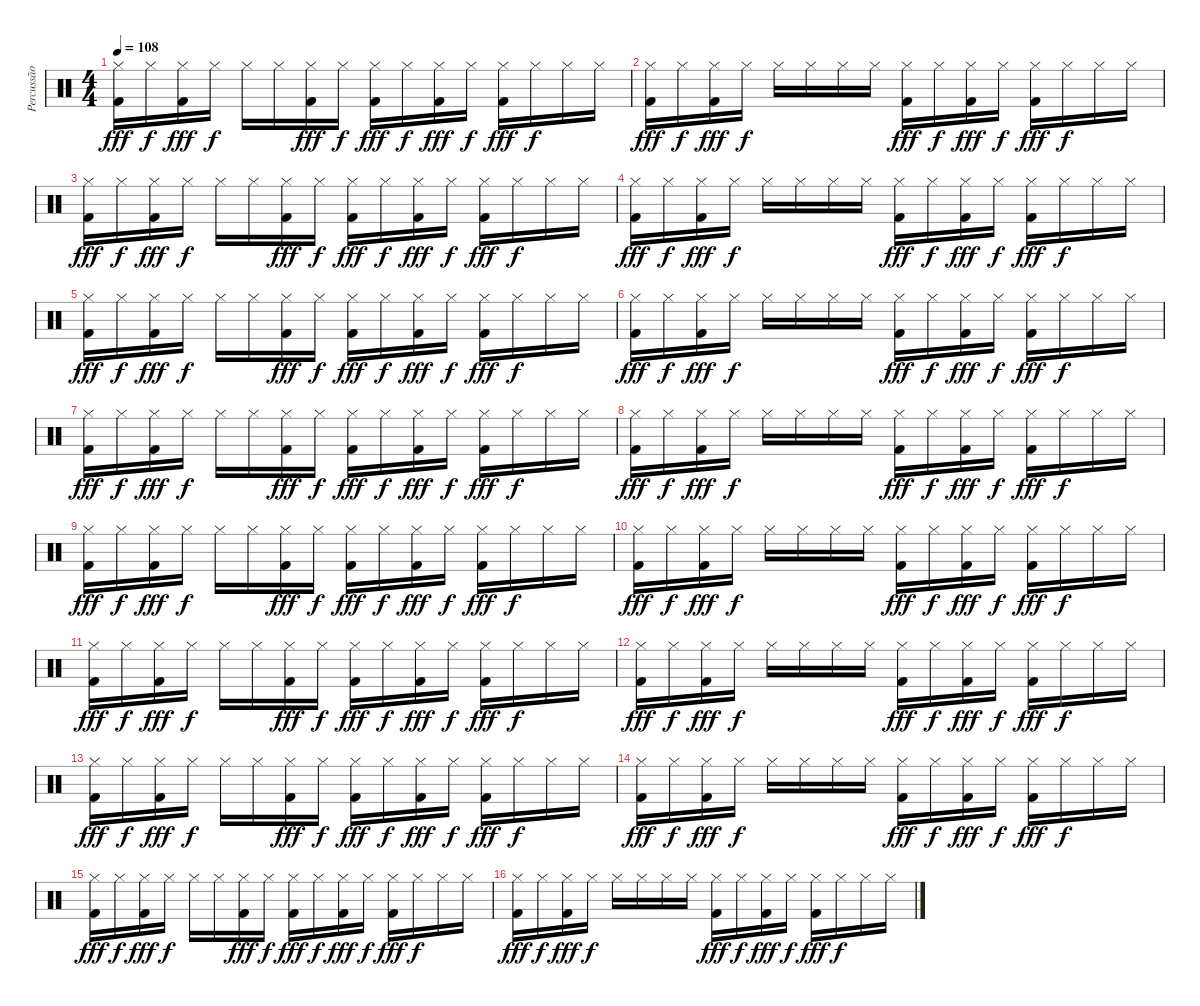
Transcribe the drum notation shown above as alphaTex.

\track ("Percussão" "Percussão") {instrument percussion}
\staff {score}
\articulation defaults
\ts (4 4)
\tempo 108
\clef neutral
\ks c
("Hi-Hat (closed)" "Kick (hit) 2").16{dy fff} "Hi-Hat (closed)".16{dy f} ("Hi-Hat (closed)" "Kick (hit) 2").16{dy fff} "Hi-Hat (closed)".16{dy f} "Hi-Hat (closed)".16 "Hi-Hat (closed)".16 ("Hi-Hat (closed)" "Kick (hit) 2").16{dy fff} "Hi-Hat (closed)".16{dy f} ("Hi-Hat (closed)" "Kick (hit) 2").16{dy fff} "Hi-Hat (closed)".16{dy f} ("Hi-Hat (closed)" "Kick (hit) 2").16{dy fff} "Hi-Hat (closed)".16{dy f} ("Hi-Hat (closed)" "Kick (hit) 2").16{dy fff} "Hi-Hat (closed)".16{dy f} "Hi-Hat (closed)".16 "Hi-Hat (closed)".16 |
("Hi-Hat (closed)" "Kick (hit) 2").16{dy fff} "Hi-Hat (closed)".16{dy f} ("Hi-Hat (closed)" "Kick (hit) 2").16{dy fff} "Hi-Hat (closed)".16{dy f} "Hi-Hat (closed)".16 "Hi-Hat (closed)".16 "Hi-Hat (closed)".16 "Hi-Hat (closed)".16 ("Hi-Hat (closed)" "Kick (hit) 2").16{dy fff} "Hi-Hat (closed)".16{dy f} ("Hi-Hat (closed)" "Kick (hit) 2").16{dy fff} "Hi-Hat (closed)".16{dy f} ("Hi-Hat (closed)" "Kick (hit) 2").16{dy fff} "Hi-Hat (closed)".16{dy f} "Hi-Hat (closed)".16 "Hi-Hat (closed)".16 |
("Hi-Hat (closed)" "Kick (hit) 2").16{dy fff} "Hi-Hat (closed)".16{dy f} ("Hi-Hat (closed)" "Kick (hit) 2").16{dy fff} "Hi-Hat (closed)".16{dy f} "Hi-Hat (closed)".16 "Hi-Hat (closed)".16 ("Hi-Hat (closed)" "Kick (hit) 2").16{dy fff} "Hi-Hat (closed)".16{dy f} ("Hi-Hat (closed)" "Kick (hit) 2").16{dy fff} "Hi-Hat (closed)".16{dy f} ("Hi-Hat (closed)" "Kick (hit) 2").16{dy fff} "Hi-Hat (closed)".16{dy f} ("Hi-Hat (closed)" "Kick (hit) 2").16{dy fff} "Hi-Hat (closed)".16{dy f} "Hi-Hat (closed)".16 "Hi-Hat (closed)".16 |
("Hi-Hat (closed)" "Kick (hit) 2").16{dy fff} "Hi-Hat (closed)".16{dy f} ("Hi-Hat (closed)" "Kick (hit) 2").16{dy fff} "Hi-Hat (closed)".16{dy f} "Hi-Hat (closed)".16 "Hi-Hat (closed)".16 "Hi-Hat (closed)".16 "Hi-Hat (closed)".16 ("Hi-Hat (closed)" "Kick (hit) 2").16{dy fff} "Hi-Hat (closed)".16{dy f} ("Hi-Hat (closed)" "Kick (hit) 2").16{dy fff} "Hi-Hat (closed)".16{dy f} ("Hi-Hat (closed)" "Kick (hit) 2").16{dy fff} "Hi-Hat (closed)".16{dy f} "Hi-Hat (closed)".16 "Hi-Hat (closed)".16 |
("Hi-Hat (closed)" "Kick (hit) 2").16{dy fff} "Hi-Hat (closed)".16{dy f} ("Hi-Hat (closed)" "Kick (hit) 2").16{dy fff} "Hi-Hat (closed)".16{dy f} "Hi-Hat (closed)".16 "Hi-Hat (closed)".16 ("Hi-Hat (closed)" "Kick (hit) 2").16{dy fff} "Hi-Hat (closed)".16{dy f} ("Hi-Hat (closed)" "Kick (hit) 2").16{dy fff} "Hi-Hat (closed)".16{dy f} ("Hi-Hat (closed)" "Kick (hit) 2").16{dy fff} "Hi-Hat (closed)".16{dy f} ("Hi-Hat (closed)" "Kick (hit) 2").16{dy fff} "Hi-Hat (closed)".16{dy f} "Hi-Hat (closed)".16 "Hi-Hat (closed)".16 |
("Hi-Hat (closed)" "Kick (hit) 2").16{dy fff} "Hi-Hat (closed)".16{dy f} ("Hi-Hat (closed)" "Kick (hit) 2").16{dy fff} "Hi-Hat (closed)".16{dy f} "Hi-Hat (closed)".16 "Hi-Hat (closed)".16 "Hi-Hat (closed)".16 "Hi-Hat (closed)".16 ("Hi-Hat (closed)" "Kick (hit) 2").16{dy fff} "Hi-Hat (closed)".16{dy f} ("Hi-Hat (closed)" "Kick (hit) 2").16{dy fff} "Hi-Hat (closed)".16{dy f} ("Hi-Hat (closed)" "Kick (hit) 2").16{dy fff} "Hi-Hat (closed)".16{dy f} "Hi-Hat (closed)".16 "Hi-Hat (closed)".16 |
("Hi-Hat (closed)" "Kick (hit) 2").16{dy fff} "Hi-Hat (closed)".16{dy f} ("Hi-Hat (closed)" "Kick (hit) 2").16{dy fff} "Hi-Hat (closed)".16{dy f} "Hi-Hat (closed)".16 "Hi-Hat (closed)".16 ("Hi-Hat (closed)" "Kick (hit) 2").16{dy fff} "Hi-Hat (closed)".16{dy f} ("Hi-Hat (closed)" "Kick (hit) 2").16{dy fff} "Hi-Hat (closed)".16{dy f} ("Hi-Hat (closed)" "Kick (hit) 2").16{dy fff} "Hi-Hat (closed)".16{dy f} ("Hi-Hat (closed)" "Kick (hit) 2").16{dy fff} "Hi-Hat (closed)".16{dy f} "Hi-Hat (closed)".16 "Hi-Hat (closed)".16 |
("Hi-Hat (closed)" "Kick (hit) 2").16{dy fff} "Hi-Hat (closed)".16{dy f} ("Hi-Hat (closed)" "Kick (hit) 2").16{dy fff} "Hi-Hat (closed)".16{dy f} "Hi-Hat (closed)".16 "Hi-Hat (closed)".16 "Hi-Hat (closed)".16 "Hi-Hat (closed)".16 ("Hi-Hat (closed)" "Kick (hit) 2").16{dy fff} "Hi-Hat (closed)".16{dy f} ("Hi-Hat (closed)" "Kick (hit) 2").16{dy fff} "Hi-Hat (closed)".16{dy f} ("Hi-Hat (closed)" "Kick (hit) 2").16{dy fff} "Hi-Hat (closed)".16{dy f} "Hi-Hat (closed)".16 "Hi-Hat (closed)".16 |
("Hi-Hat (closed)" "Kick (hit) 2").16{dy fff} "Hi-Hat (closed)".16{dy f} ("Hi-Hat (closed)" "Kick (hit) 2").16{dy fff} "Hi-Hat (closed)".16{dy f} "Hi-Hat (closed)".16 "Hi-Hat (closed)".16 ("Hi-Hat (closed)" "Kick (hit) 2").16{dy fff} "Hi-Hat (closed)".16{dy f} ("Hi-Hat (closed)" "Kick (hit) 2").16{dy fff} "Hi-Hat (closed)".16{dy f} ("Hi-Hat (closed)" "Kick (hit) 2").16{dy fff} "Hi-Hat (closed)".16{dy f} ("Hi-Hat (closed)" "Kick (hit) 2").16{dy fff} "Hi-Hat (closed)".16{dy f} "Hi-Hat (closed)".16 "Hi-Hat (closed)".16 |
("Hi-Hat (closed)" "Kick (hit) 2").16{dy fff} "Hi-Hat (closed)".16{dy f} ("Hi-Hat (closed)" "Kick (hit) 2").16{dy fff} "Hi-Hat (closed)".16{dy f} "Hi-Hat (closed)".16 "Hi-Hat (closed)".16 "Hi-Hat (closed)".16 "Hi-Hat (closed)".16 ("Hi-Hat (closed)" "Kick (hit) 2").16{dy fff} "Hi-Hat (closed)".16{dy f} ("Hi-Hat (closed)" "Kick (hit) 2").16{dy fff} "Hi-Hat (closed)".16{dy f} ("Hi-Hat (closed)" "Kick (hit) 2").16{dy fff} "Hi-Hat (closed)".16{dy f} "Hi-Hat (closed)".16 "Hi-Hat (closed)".16 |
("Hi-Hat (closed)" "Kick (hit) 2").16{dy fff} "Hi-Hat (closed)".16{dy f} ("Hi-Hat (closed)" "Kick (hit) 2").16{dy fff} "Hi-Hat (closed)".16{dy f} "Hi-Hat (closed)".16 "Hi-Hat (closed)".16 ("Hi-Hat (closed)" "Kick (hit) 2").16{dy fff} "Hi-Hat (closed)".16{dy f} ("Hi-Hat (closed)" "Kick (hit) 2").16{dy fff} "Hi-Hat (closed)".16{dy f} ("Hi-Hat (closed)" "Kick (hit) 2").16{dy fff} "Hi-Hat (closed)".16{dy f} ("Hi-Hat (closed)" "Kick (hit) 2").16{dy fff} "Hi-Hat (closed)".16{dy f} "Hi-Hat (closed)".16 "Hi-Hat (closed)".16 |
("Hi-Hat (closed)" "Kick (hit) 2").16{dy fff} "Hi-Hat (closed)".16{dy f} ("Hi-Hat (closed)" "Kick (hit) 2").16{dy fff} "Hi-Hat (closed)".16{dy f} "Hi-Hat (closed)".16 "Hi-Hat (closed)".16 "Hi-Hat (closed)".16 "Hi-Hat (closed)".16 ("Hi-Hat (closed)" "Kick (hit) 2").16{dy fff} "Hi-Hat (closed)".16{dy f} ("Hi-Hat (closed)" "Kick (hit) 2").16{dy fff} "Hi-Hat (closed)".16{dy f} ("Hi-Hat (closed)" "Kick (hit) 2").16{dy fff} "Hi-Hat (closed)".16{dy f} "Hi-Hat (closed)".16 "Hi-Hat (closed)".16 |
("Hi-Hat (closed)" "Kick (hit) 2").16{dy fff} "Hi-Hat (closed)".16{dy f} ("Hi-Hat (closed)" "Kick (hit) 2").16{dy fff} "Hi-Hat (closed)".16{dy f} "Hi-Hat (closed)".16 "Hi-Hat (closed)".16 ("Hi-Hat (closed)" "Kick (hit) 2").16{dy fff} "Hi-Hat (closed)".16{dy f} ("Hi-Hat (closed)" "Kick (hit) 2").16{dy fff} "Hi-Hat (closed)".16{dy f} ("Hi-Hat (closed)" "Kick (hit) 2").16{dy fff} "Hi-Hat (closed)".16{dy f} ("Hi-Hat (closed)" "Kick (hit) 2").16{dy fff} "Hi-Hat (closed)".16{dy f} "Hi-Hat (closed)".16 "Hi-Hat (closed)".16 |
("Hi-Hat (closed)" "Kick (hit) 2").16{dy fff} "Hi-Hat (closed)".16{dy f} ("Hi-Hat (closed)" "Kick (hit) 2").16{dy fff} "Hi-Hat (closed)".16{dy f} "Hi-Hat (closed)".16 "Hi-Hat (closed)".16 "Hi-Hat (closed)".16 "Hi-Hat (closed)".16 ("Hi-Hat (closed)" "Kick (hit) 2").16{dy fff} "Hi-Hat (closed)".16{dy f} ("Hi-Hat (closed)" "Kick (hit) 2").16{dy fff} "Hi-Hat (closed)".16{dy f} ("Hi-Hat (closed)" "Kick (hit) 2").16{dy fff} "Hi-Hat (closed)".16{dy f} "Hi-Hat (closed)".16 "Hi-Hat (closed)".16 |
("Hi-Hat (closed)" "Kick (hit) 2").16{dy fff} "Hi-Hat (closed)".16{dy f} ("Hi-Hat (closed)" "Kick (hit) 2").16{dy fff} "Hi-Hat (closed)".16{dy f} "Hi-Hat (closed)".16 "Hi-Hat (closed)".16 ("Hi-Hat (closed)" "Kick (hit) 2").16{dy fff} "Hi-Hat (closed)".16{dy f} ("Hi-Hat (closed)" "Kick (hit) 2").16{dy fff} "Hi-Hat (closed)".16{dy f} ("Hi-Hat (closed)" "Kick (hit) 2").16{dy fff} "Hi-Hat (closed)".16{dy f} ("Hi-Hat (closed)" "Kick (hit) 2").16{dy fff} "Hi-Hat (closed)".16{dy f} "Hi-Hat (closed)".16 "Hi-Hat (closed)".16 |
("Hi-Hat (closed)" "Kick (hit) 2").16{dy fff} "Hi-Hat (closed)".16{dy f} ("Hi-Hat (closed)" "Kick (hit) 2").16{dy fff} "Hi-Hat (closed)".16{dy f} "Hi-Hat (closed)".16 "Hi-Hat (closed)".16 "Hi-Hat (closed)".16 "Hi-Hat (closed)".16 ("Hi-Hat (closed)" "Kick (hit) 2").16{dy fff} "Hi-Hat (closed)".16{dy f} ("Hi-Hat (closed)" "Kick (hit) 2").16{dy fff} "Hi-Hat (closed)".16{dy f} ("Hi-Hat (closed)" "Kick (hit) 2").16{dy fff} "Hi-Hat (closed)".16{dy f} "Hi-Hat (closed)".16 "Hi-Hat (closed)".16
